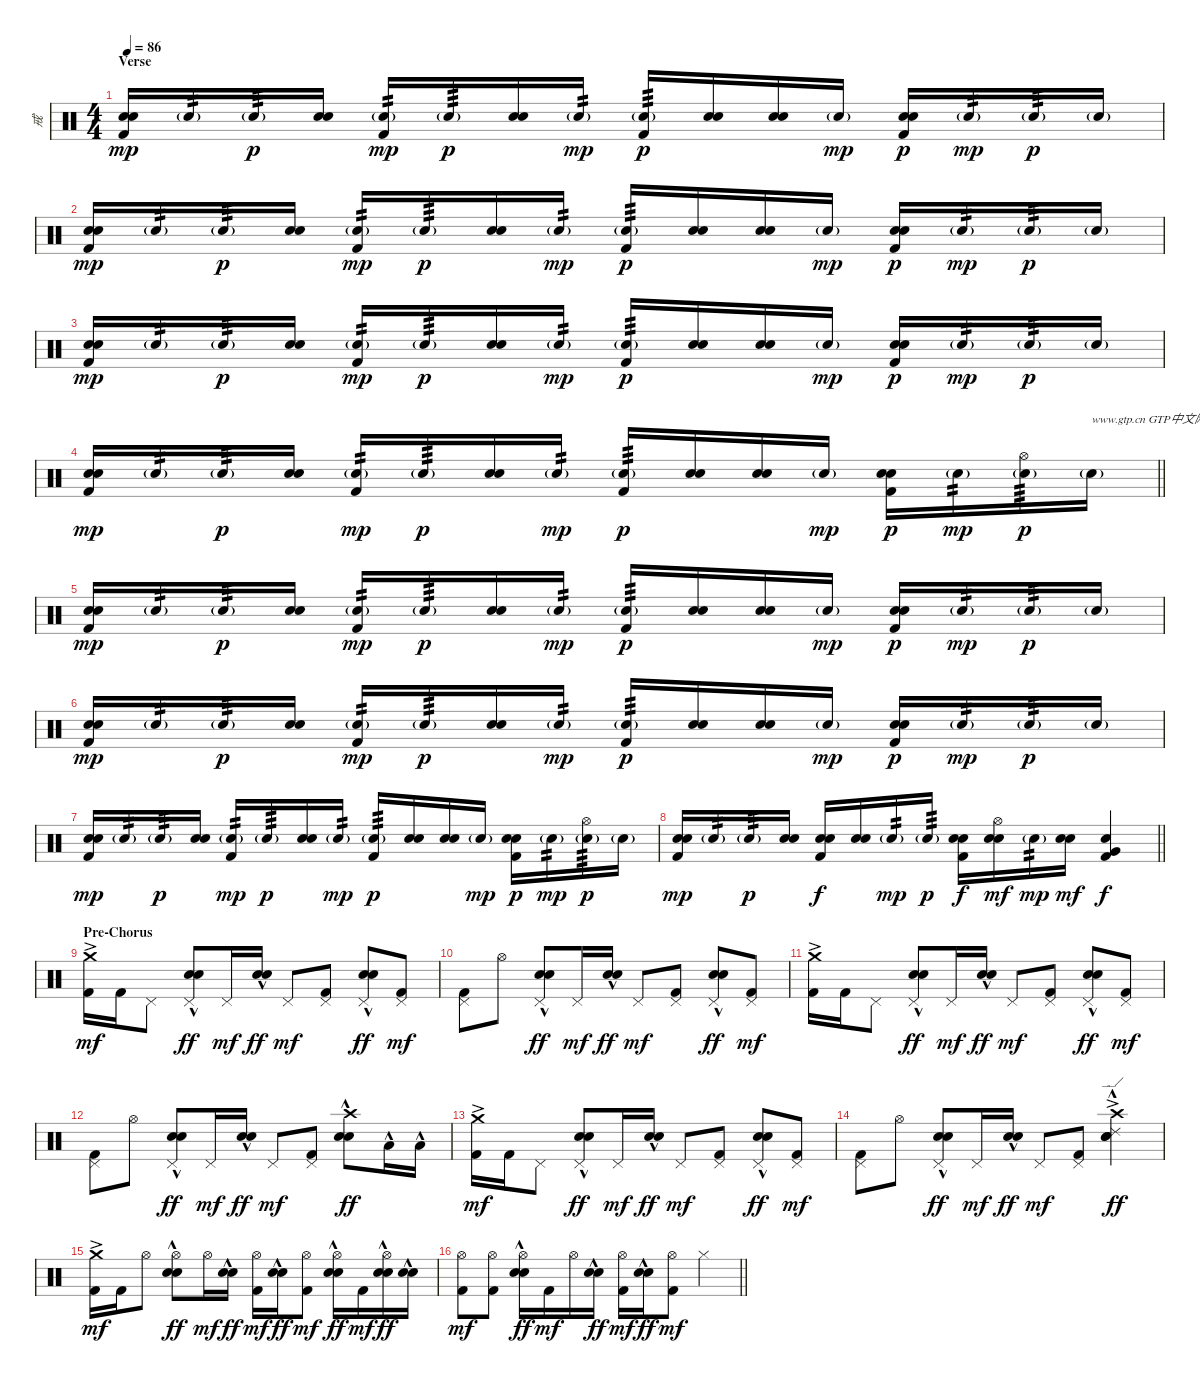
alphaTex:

\track ("戒" "戒") {instrument percussion}
\staff {score}
\articulation defaults
\ts (4 4)
\section ("" "Verse")
\tempo 86
\clef neutral
\ks c
("Electric Snare (hit)" "Snare (hit) 2" "Kick (hit) 2").16{dy mp} "Snare (hit) 2"{g}.16{tp 2} "Snare (hit) 2"{g}.16{tp 3 dy p} ("Electric Snare (hit)" "Snare (hit) 2").16 ("Snare (hit) 2"{g} "Kick (hit) 2").16{tp 2 dy mp} "Snare (hit) 2"{g}.16{tp 3 dy p} ("Electric Snare (hit)" "Snare (hit) 2").16 "Snare (hit) 2"{g}.16{tp 2 dy mp} ("Snare (hit) 2"{g} "Kick (hit) 2").16{tp 3 dy p} ("Electric Snare (hit)" "Snare (hit) 2").16 ("Electric Snare (hit)" "Snare (hit) 2").16 "Snare (hit) 2"{g}.16{dy mp} ("Electric Snare (hit)" "Snare (hit) 2" "Kick (hit) 2").16{dy p} "Snare (hit) 2"{g}.16{tp 2 dy mp} "Snare (hit) 2"{g}.16{tp 3 dy p} "Snare (hit) 2"{g}.16 |
("Electric Snare (hit)" "Snare (hit) 2" "Kick (hit) 2").16{dy mp} "Snare (hit) 2"{g}.16{tp 2} "Snare (hit) 2"{g}.16{tp 3 dy p} ("Electric Snare (hit)" "Snare (hit) 2").16 ("Snare (hit) 2"{g} "Kick (hit) 2").16{tp 2 dy mp} "Snare (hit) 2"{g}.16{tp 3 dy p} ("Electric Snare (hit)" "Snare (hit) 2").16 "Snare (hit) 2"{g}.16{tp 2 dy mp} ("Snare (hit) 2"{g} "Kick (hit) 2").16{tp 3 dy p} ("Electric Snare (hit)" "Snare (hit) 2").16 ("Electric Snare (hit)" "Snare (hit) 2").16 "Snare (hit) 2"{g}.16{dy mp} ("Electric Snare (hit)" "Snare (hit) 2" "Kick (hit) 2").16{dy p} "Snare (hit) 2"{g}.16{tp 2 dy mp} "Snare (hit) 2"{g}.16{tp 3 dy p} "Snare (hit) 2"{g}.16 |
("Electric Snare (hit)" "Snare (hit) 2" "Kick (hit) 2").16{dy mp} "Snare (hit) 2"{g}.16{tp 2} "Snare (hit) 2"{g}.16{tp 3 dy p} ("Electric Snare (hit)" "Snare (hit) 2").16 ("Snare (hit) 2"{g} "Kick (hit) 2").16{tp 2 dy mp} "Snare (hit) 2"{g}.16{tp 3 dy p} ("Electric Snare (hit)" "Snare (hit) 2").16 "Snare (hit) 2"{g}.16{tp 2 dy mp} ("Snare (hit) 2"{g} "Kick (hit) 2").16{tp 3 dy p} ("Electric Snare (hit)" "Snare (hit) 2").16 ("Electric Snare (hit)" "Snare (hit) 2").16 "Snare (hit) 2"{g}.16{dy mp} ("Electric Snare (hit)" "Snare (hit) 2" "Kick (hit) 2").16{dy p} "Snare (hit) 2"{g}.16{tp 2 dy mp} "Snare (hit) 2"{g}.16{tp 3 dy p} "Snare (hit) 2"{g}.16 |
\barLineRight lightlight
("Electric Snare (hit)" "Snare (hit) 2" "Kick (hit) 2").16{dy mp} "Snare (hit) 2"{g}.16{tp 2} "Snare (hit) 2"{g}.16{tp 3 dy p} ("Electric Snare (hit)" "Snare (hit) 2").16 ("Snare (hit) 2"{g} "Kick (hit) 2").16{tp 2 dy mp} "Snare (hit) 2"{g}.16{tp 3 dy p} ("Electric Snare (hit)" "Snare (hit) 2").16 "Snare (hit) 2"{g}.16{tp 2 dy mp} ("Snare (hit) 2"{g} "Kick (hit) 2").16{tp 3 dy p} ("Electric Snare (hit)" "Snare (hit) 2").16 ("Electric Snare (hit)" "Snare (hit) 2").16 "Snare (hit) 2"{g}.16{dy mp} ("Electric Snare (hit)" "Snare (hit) 2" "Kick (hit) 2").16{dy p} "Snare (hit) 2"{g}.16{tp 2 dy mp} ("Hi-Hat (open)" "Snare (hit) 2"{g}).16{tp 3 dy p} "Snare (hit) 2"{g}.16{txt "www.gtp.cn GTP中文网为您提供优秀的谱子"} |
("Electric Snare (hit)" "Snare (hit) 2" "Kick (hit) 2").16{dy mp} "Snare (hit) 2"{g}.16{tp 2} "Snare (hit) 2"{g}.16{tp 3 dy p} ("Electric Snare (hit)" "Snare (hit) 2").16 ("Snare (hit) 2"{g} "Kick (hit) 2").16{tp 2 dy mp} "Snare (hit) 2"{g}.16{tp 3 dy p} ("Electric Snare (hit)" "Snare (hit) 2").16 "Snare (hit) 2"{g}.16{tp 2 dy mp} ("Snare (hit) 2"{g} "Kick (hit) 2").16{tp 3 dy p} ("Electric Snare (hit)" "Snare (hit) 2").16 ("Electric Snare (hit)" "Snare (hit) 2").16 "Snare (hit) 2"{g}.16{dy mp} ("Electric Snare (hit)" "Snare (hit) 2" "Kick (hit) 2").16{dy p} "Snare (hit) 2"{g}.16{tp 2 dy mp} "Snare (hit) 2"{g}.16{tp 3 dy p} "Snare (hit) 2"{g}.16 |
("Electric Snare (hit)" "Snare (hit) 2" "Kick (hit) 2").16{dy mp} "Snare (hit) 2"{g}.16{tp 2} "Snare (hit) 2"{g}.16{tp 3 dy p} ("Electric Snare (hit)" "Snare (hit) 2").16 ("Snare (hit) 2"{g} "Kick (hit) 2").16{tp 2 dy mp} "Snare (hit) 2"{g}.16{tp 3 dy p} ("Electric Snare (hit)" "Snare (hit) 2").16 "Snare (hit) 2"{g}.16{tp 2 dy mp} ("Snare (hit) 2"{g} "Kick (hit) 2").16{tp 3 dy p} ("Electric Snare (hit)" "Snare (hit) 2").16 ("Electric Snare (hit)" "Snare (hit) 2").16 "Snare (hit) 2"{g}.16{dy mp} ("Electric Snare (hit)" "Snare (hit) 2" "Kick (hit) 2").16{dy p} "Snare (hit) 2"{g}.16{tp 2 dy mp} "Snare (hit) 2"{g}.16{tp 3 dy p} "Snare (hit) 2"{g}.16 |
("Electric Snare (hit)" "Snare (hit) 2" "Kick (hit) 2").16{dy mp} "Snare (hit) 2"{g}.16{tp 2} "Snare (hit) 2"{g}.16{tp 3 dy p} ("Electric Snare (hit)" "Snare (hit) 2").16 ("Snare (hit) 2"{g} "Kick (hit) 2").16{tp 2 dy mp} "Snare (hit) 2"{g}.16{tp 3 dy p} ("Electric Snare (hit)" "Snare (hit) 2").16 "Snare (hit) 2"{g}.16{tp 2 dy mp} ("Snare (hit) 2"{g} "Kick (hit) 2").16{tp 3 dy p} ("Electric Snare (hit)" "Snare (hit) 2").16 ("Electric Snare (hit)" "Snare (hit) 2").16 "Snare (hit) 2"{g}.16{dy mp} ("Electric Snare (hit)" "Snare (hit) 2" "Kick (hit) 2").16{dy p} "Snare (hit) 2"{g}.16{tp 2 dy mp} ("Hi-Hat (open)" "Snare (hit) 2"{g}).16{tp 3 dy p} "Snare (hit) 2"{g}.16 |
\barLineRight lightlight
("Electric Snare (hit)" "Snare (hit) 2" "Kick (hit) 2").16{dy mp} "Snare (hit) 2"{g}.16{tp 2} "Snare (hit) 2"{g}.16{tp 3 dy p} ("Electric Snare (hit)" "Snare (hit) 2").16 ("Electric Snare (hit)" "Snare (hit) 2" "Kick (hit) 2").16{dy f} ("Electric Snare (hit)" "Snare (hit) 2").16 "Snare (hit) 2"{g}.16{tp 2 dy mp} "Snare (hit) 2"{g}.16{tp 3 dy p} ("Electric Snare (hit)" "Snare (hit) 2" "Kick (hit) 2").16{dy f} ("Hi-Hat (open)" "Electric Snare (hit)" "Snare (hit) 2").16{dy mf} "Snare (hit) 2"{g}.16{tp 2 dy mp} ("Electric Snare (hit)" "Snare (hit) 2").16{dy mf} ("Electric Snare (hit)" "Very Low Tom (hit)" "Kick (hit) 2").4{dy f} |
\section ("" "Pre-Chorus")
("Crash medium (hit)"{ac} "Kick (hit) 2").16{dy mf} "Kick (hit) 2".16 "Pedal Hi-Hat (hit)".8 ("Pedal Hi-Hat (hit)" "Electric Snare (hit)"{hac} "Snare (hit) 2"{hac}).8{dy ff} "Pedal Hi-Hat (hit)".16{dy mf} ("Electric Snare (hit)"{hac} "Snare (hit) 2"{hac}).16{dy ff} "Pedal Hi-Hat (hit)".8{dy mf} ("Pedal Hi-Hat (hit)" "Kick (hit) 2").8 ("Pedal Hi-Hat (hit)" "Electric Snare (hit)"{hac} "Snare (hit) 2"{hac}).8{dy ff} ("Pedal Hi-Hat (hit)" "Kick (hit) 2").8{dy mf} |
("Pedal Hi-Hat (hit)" "Kick (hit) 2").8 "Hi-Hat (open)".8 ("Pedal Hi-Hat (hit)" "Electric Snare (hit)"{hac} "Snare (hit) 2"{hac}).8{dy ff} "Pedal Hi-Hat (hit)".16{dy mf} ("Electric Snare (hit)"{hac} "Snare (hit) 2"{hac}).16{dy ff} "Pedal Hi-Hat (hit)".8{dy mf} ("Pedal Hi-Hat (hit)" "Kick (hit) 2").8 ("Pedal Hi-Hat (hit)" "Electric Snare (hit)"{hac} "Snare (hit) 2"{hac}).8{dy ff} ("Pedal Hi-Hat (hit)" "Kick (hit) 2").8{dy mf} |
("Crash medium (hit)"{ac} "Kick (hit) 2").16 "Kick (hit) 2".16 "Pedal Hi-Hat (hit)".8 ("Pedal Hi-Hat (hit)" "Electric Snare (hit)"{hac} "Snare (hit) 2"{hac}).8{dy ff} "Pedal Hi-Hat (hit)".16{dy mf} ("Electric Snare (hit)"{hac} "Snare (hit) 2"{hac}).16{dy ff} "Pedal Hi-Hat (hit)".8{dy mf} ("Pedal Hi-Hat (hit)" "Kick (hit) 2").8 ("Pedal Hi-Hat (hit)" "Electric Snare (hit)"{hac} "Snare (hit) 2"{hac}).8{dy ff} ("Pedal Hi-Hat (hit)" "Kick (hit) 2").8{dy mf} |
("Pedal Hi-Hat (hit)" "Kick (hit) 2").8 "Hi-Hat (open)".8 ("Pedal Hi-Hat (hit)" "Electric Snare (hit)"{hac} "Snare (hit) 2"{hac}).8{dy ff} "Pedal Hi-Hat (hit)".16{dy mf} ("Electric Snare (hit)"{hac} "Snare (hit) 2"{hac}).16{dy ff} "Pedal Hi-Hat (hit)".8{dy mf} ("Pedal Hi-Hat (hit)" "Kick (hit) 2").8 ("Crash high (hit)" "Electric Snare (hit)"{hac} "Snare (hit) 2"{hac}).8{dy ff} "Low Tom (hit)"{hac}.16 "Low Tom (hit)"{hac}.16 |
("Crash medium (hit)"{ac} "Kick (hit) 2").16{dy mf} "Kick (hit) 2".16 "Pedal Hi-Hat (hit)".8 ("Pedal Hi-Hat (hit)" "Electric Snare (hit)"{hac} "Snare (hit) 2"{hac}).8{dy ff} "Pedal Hi-Hat (hit)".16{dy mf} ("Electric Snare (hit)"{hac} "Snare (hit) 2"{hac}).16{dy ff} "Pedal Hi-Hat (hit)".8{dy mf} ("Pedal Hi-Hat (hit)" "Kick (hit) 2").8 ("Pedal Hi-Hat (hit)" "Electric Snare (hit)"{hac} "Snare (hit) 2"{hac}).8{dy ff} ("Pedal Hi-Hat (hit)" "Kick (hit) 2").8{dy mf} |
("Pedal Hi-Hat (hit)" "Kick (hit) 2").8 "Hi-Hat (open)".8 ("Pedal Hi-Hat (hit)" "Electric Snare (hit)"{hac} "Snare (hit) 2"{hac}).8{dy ff} "Pedal Hi-Hat (hit)".16{dy mf} ("Electric Snare (hit)"{hac} "Snare (hit) 2"{hac}).16{dy ff} "Pedal Hi-Hat (hit)".8{dy mf} ("Pedal Hi-Hat (hit)" "Kick (hit) 2").8 ("Crash high (hit)"{ac} "Ride (edge) 2"{hac} "Electric Snare (hit)"{hac} "Snare (hit) 2"{hac}).4{dy ff} |
("Crash medium (hit)"{ac} "Kick (hit) 2").16{dy mf} "Kick (hit) 2".16 "Hi-Hat (open)".8 ("Hi-Hat (open)" "Electric Snare (hit)"{hac} "Snare (hit) 2"{hac}).8{dy ff} "Hi-Hat (open)".16{dy mf} ("Electric Snare (hit)"{hac} "Snare (hit) 2"{hac}).16{dy ff} ("Hi-Hat (open)" "Kick (hit) 2").16{dy mf} ("Electric Snare (hit)"{hac} "Snare (hit) 2"{hac}).16{dy ff} ("Hi-Hat (open)" "Kick (hit) 2").8{dy mf} ("Hi-Hat (open)" "Electric Snare (hit)"{hac} "Snare (hit) 2"{hac}).16{dy ff} "Kick (hit) 2".16{dy mf} ("Hi-Hat (open)" "Electric Snare (hit)"{hac} "Snare (hit) 2"{hac}).16{dy ff} ("Electric Snare (hit)"{hac} "Snare (hit) 2"{hac}).16 |
\barLineRight lightlight
("Hi-Hat (open)" "Kick (hit) 2").8{dy mf} ("Hi-Hat (open)" "Kick (hit) 2").8 ("Hi-Hat (open)" "Electric Snare (hit)"{hac} "Snare (hit) 2"{hac}).16{dy ff} "Kick (hit) 2".16{dy mf} "Hi-Hat (open)".16 ("Electric Snare (hit)"{hac} "Snare (hit) 2"{hac}).16{dy ff} ("Hi-Hat (open)" "Kick (hit) 2").16{dy mf} ("Electric Snare (hit)"{hac} "Snare (hit) 2"{hac}).16{dy ff} ("Hi-Hat (open)" "Kick (hit) 2").8{dy mf} "Hi-Hat (closed)".4
